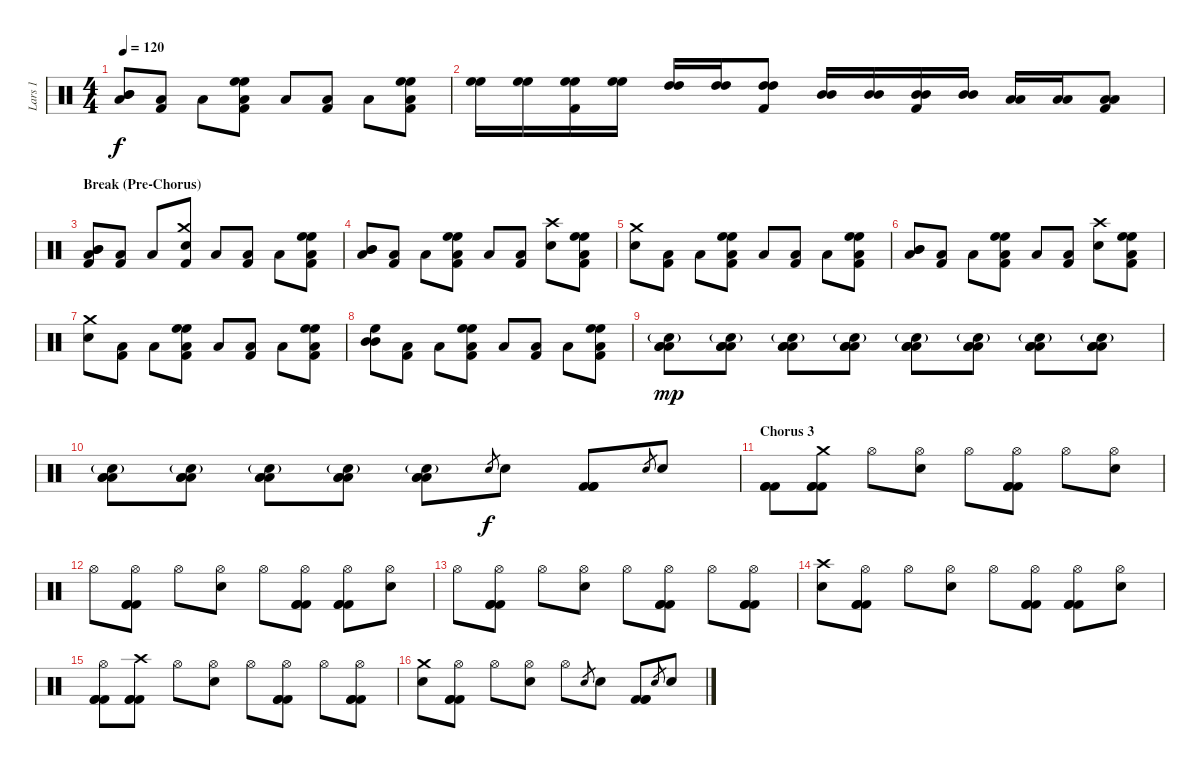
\track ("Lars 1" "Lars 1") {instrument percussion}
\staff {score}
\articulation defaults
\ts (4 4)
\tempo 120
\clef neutral
\ks c
("Mid Tom (hit)" "Low Floor Tom (hit)" "Mid Tom (hit)").8{dy f} ("Low Floor Tom (hit)" "Kick (hit) 2").8 "Low Floor Tom (hit)".8 ("High Floor Tom (hit)" "Low Floor Tom (hit)" "High Floor Tom (hit)" "Kick (hit) 2").8 "Low Floor Tom (hit)".8 ("Low Floor Tom (hit)" "Kick (hit) 2").8 "Low Floor Tom (hit)".8 ("High Floor Tom (hit)" "Low Floor Tom (hit)" "High Floor Tom (hit)" "Kick (hit) 2").8 |
("High Floor Tom (hit)" "High Floor Tom (hit)").16 ("High Floor Tom (hit)" "High Floor Tom (hit)").16 ("High Floor Tom (hit)" "High Floor Tom (hit)" "Kick (hit) 2").16 ("High Floor Tom (hit)" "High Floor Tom (hit)").16 ("High Tom (hit)" "High Tom (hit)").16 ("High Tom (hit)" "High Tom (hit)").16 ("High Tom (hit)" "High Tom (hit)" "Kick (hit) 2").8 ("Mid Tom (hit)" "Mid Tom (hit)").16 ("Mid Tom (hit)" "Mid Tom (hit)").16 ("Mid Tom (hit)" "Mid Tom (hit)" "Kick (hit) 2").16 ("Mid Tom (hit)" "Mid Tom (hit)").16 ("Low Tom (hit)" "Low Tom (hit)").16 ("Low Tom (hit)" "Low Tom (hit)").16 ("Low Floor Tom (hit)" "Low Floor Tom (hit)" "Kick (hit) 2").8 |
\section ("" "Break (Pre-Chorus)")
("Mid Tom (hit)" "Low Floor Tom (hit)" "Mid Tom (hit)" "Kick (hit) 2").8 ("Low Floor Tom (hit)" "Kick (hit) 2").8 "Low Floor Tom (hit)".8 ("Crash medium (hit)" "Electric Snare (hit)" "Kick (hit) 2").8 "Low Floor Tom (hit)".8 ("Low Floor Tom (hit)" "Kick (hit) 2").8 "Low Floor Tom (hit)".8 ("High Floor Tom (hit)" "Low Floor Tom (hit)" "High Floor Tom (hit)" "Kick (hit) 2").8 |
("Mid Tom (hit)" "Low Floor Tom (hit)" "Mid Tom (hit)").8 ("Low Floor Tom (hit)" "Kick (hit) 2").8 "Low Floor Tom (hit)".8 ("High Floor Tom (hit)" "Low Floor Tom (hit)" "High Floor Tom (hit)" "Kick (hit) 2").8 "Low Floor Tom (hit)".8 ("Low Floor Tom (hit)" "Kick (hit) 2").8 ("Crash high (hit)" "Electric Snare (hit)").8 ("High Floor Tom (hit)" "Low Floor Tom (hit)" "High Floor Tom (hit)" "Kick (hit) 2").8 |
("Crash medium (hit)" "Electric Snare (hit)").8 ("Low Floor Tom (hit)" "Kick (hit) 2").8 "Low Floor Tom (hit)".8 ("High Floor Tom (hit)" "Low Floor Tom (hit)" "High Floor Tom (hit)" "Kick (hit) 2").8 "Low Floor Tom (hit)".8 ("Low Floor Tom (hit)" "Kick (hit) 2").8 "Low Floor Tom (hit)".8 ("High Floor Tom (hit)" "Low Floor Tom (hit)" "High Floor Tom (hit)" "Kick (hit) 2").8 |
("Mid Tom (hit)" "Low Floor Tom (hit)" "Mid Tom (hit)").8 ("Low Floor Tom (hit)" "Kick (hit) 2").8 "Low Floor Tom (hit)".8 ("High Floor Tom (hit)" "Low Floor Tom (hit)" "High Floor Tom (hit)" "Kick (hit) 2").8 "Low Floor Tom (hit)".8 ("Low Floor Tom (hit)" "Kick (hit) 2").8 ("Crash high (hit)" "Electric Snare (hit)").8 ("High Floor Tom (hit)" "Low Floor Tom (hit)" "High Floor Tom (hit)" "Kick (hit) 2").8 |
("Crash medium (hit)" "Electric Snare (hit)").8 ("Low Floor Tom (hit)" "Kick (hit) 2").8 "Low Floor Tom (hit)".8 ("High Floor Tom (hit)" "Low Floor Tom (hit)" "High Floor Tom (hit)" "Kick (hit) 2").8 "Low Floor Tom (hit)".8 ("Low Floor Tom (hit)" "Kick (hit) 2").8 "Low Floor Tom (hit)".8 ("High Floor Tom (hit)" "Low Floor Tom (hit)" "High Floor Tom (hit)" "Kick (hit) 2").8 |
("Mid Tom (hit)" "High Floor Tom (hit)" "Mid Tom (hit)").8 ("Low Floor Tom (hit)" "Kick (hit) 2").8 "Low Floor Tom (hit)".8 ("High Floor Tom (hit)" "Low Floor Tom (hit)" "High Floor Tom (hit)" "Kick (hit) 2").8 "Low Floor Tom (hit)".8 ("Low Floor Tom (hit)" "Kick (hit) 2").8 "Low Floor Tom (hit)".8 ("High Floor Tom (hit)" "Low Floor Tom (hit)" "High Floor Tom (hit)" "Kick (hit) 2").8 |
("Low Floor Tom (hit)" "Low Floor Tom (hit)" "Low Floor Tom (hit)" "Electric Snare (hit)"{g}).8{dy mp volume 8} ("Low Floor Tom (hit)" "Low Floor Tom (hit)" "Low Floor Tom (hit)" "Electric Snare (hit)"{g}).8{volume 16} ("Low Floor Tom (hit)" "Low Floor Tom (hit)" "Low Floor Tom (hit)" "Electric Snare (hit)"{g}).8 ("Low Floor Tom (hit)" "Low Floor Tom (hit)" "Low Floor Tom (hit)" "Electric Snare (hit)"{g}).8 ("Low Floor Tom (hit)" "Low Floor Tom (hit)" "Low Floor Tom (hit)" "Electric Snare (hit)"{g}).8 ("Low Floor Tom (hit)" "Low Floor Tom (hit)" "Low Floor Tom (hit)" "Electric Snare (hit)"{g}).8 ("Low Floor Tom (hit)" "Low Floor Tom (hit)" "Low Floor Tom (hit)" "Electric Snare (hit)"{g}).8 ("Low Floor Tom (hit)" "Low Floor Tom (hit)" "Low Floor Tom (hit)" "Electric Snare (hit)"{g}).8 |
("Low Floor Tom (hit)" "Low Floor Tom (hit)" "Low Floor Tom (hit)" "Electric Snare (hit)"{g}).8 ("Low Floor Tom (hit)" "Low Floor Tom (hit)" "Low Floor Tom (hit)" "Electric Snare (hit)"{g}).8 ("Low Floor Tom (hit)" "Low Floor Tom (hit)" "Low Floor Tom (hit)" "Electric Snare (hit)"{g}).8 ("Low Floor Tom (hit)" "Low Floor Tom (hit)" "Low Floor Tom (hit)" "Electric Snare (hit)"{g}).8 ("Low Floor Tom (hit)" "Low Floor Tom (hit)" "Low Floor Tom (hit)" "Electric Snare (hit)"{g}).8 "Electric Snare (hit)".8{gr dy f} "Electric Snare (hit)".8 ("Kick (hit) 2" "Kick (hit) 2" "Kick (hit) 2").8 "Electric Snare (hit)".8{gr} "Electric Snare (hit)".8 |
\section ("" "Chorus 3")
("Kick (hit) 2" "Kick (hit) 2" "Kick (hit) 2").8 ("Crash medium (hit)" "Kick (hit) 2" "Kick (hit) 2" "Kick (hit) 2").8 "Hi-Hat (open)".8 ("Hi-Hat (open)" "Electric Snare (hit)").8 "Hi-Hat (open)".8 ("Hi-Hat (open)" "Kick (hit) 2" "Kick (hit) 2" "Kick (hit) 2").8 "Hi-Hat (open)".8 ("Hi-Hat (open)" "Electric Snare (hit)").8 |
"Hi-Hat (open)".8 ("Hi-Hat (open)" "Kick (hit) 2" "Kick (hit) 2" "Kick (hit) 2").8 "Hi-Hat (open)".8 ("Hi-Hat (open)" "Electric Snare (hit)").8 "Hi-Hat (open)".8 ("Hi-Hat (open)" "Kick (hit) 2" "Kick (hit) 2" "Kick (hit) 2").8 ("Hi-Hat (open)" "Kick (hit) 2" "Kick (hit) 2" "Kick (hit) 2").8 ("Hi-Hat (open)" "Electric Snare (hit)").8 |
"Hi-Hat (open)".8 ("Hi-Hat (open)" "Kick (hit) 2" "Kick (hit) 2" "Kick (hit) 2").8 "Hi-Hat (open)".8 ("Hi-Hat (open)" "Electric Snare (hit)").8 "Hi-Hat (open)".8 ("Hi-Hat (open)" "Kick (hit) 2" "Kick (hit) 2" "Kick (hit) 2").8 "Hi-Hat (open)".8 ("Hi-Hat (open)" "Kick (hit) 2" "Kick (hit) 2" "Kick (hit) 2").8 |
("Crash high (hit)" "Electric Snare (hit)").8 ("Hi-Hat (open)" "Kick (hit) 2" "Kick (hit) 2" "Kick (hit) 2").8 "Hi-Hat (open)".8 ("Hi-Hat (open)" "Electric Snare (hit)").8 "Hi-Hat (open)".8 ("Hi-Hat (open)" "Kick (hit) 2" "Kick (hit) 2" "Kick (hit) 2").8 ("Hi-Hat (open)" "Kick (hit) 2" "Kick (hit) 2" "Kick (hit) 2").8 ("Hi-Hat (open)" "Electric Snare (hit)").8 |
("Hi-Hat (open)" "Kick (hit) 2" "Kick (hit) 2" "Kick (hit) 2").8 ("Crash high (hit)" "Kick (hit) 2" "Kick (hit) 2" "Kick (hit) 2").8 "Hi-Hat (open)".8 ("Hi-Hat (open)" "Electric Snare (hit)").8 "Hi-Hat (open)".8 ("Hi-Hat (open)" "Kick (hit) 2" "Kick (hit) 2" "Kick (hit) 2").8 "Hi-Hat (open)".8 ("Hi-Hat (open)" "Kick (hit) 2" "Kick (hit) 2" "Kick (hit) 2").8 |
("Crash medium (hit)" "Electric Snare (hit)").8 ("Hi-Hat (open)" "Kick (hit) 2" "Kick (hit) 2" "Kick (hit) 2").8 "Hi-Hat (open)".8 ("Hi-Hat (open)" "Electric Snare (hit)").8 "Hi-Hat (open)".8 "Electric Snare (hit)".8{gr} "Electric Snare (hit)".8 ("Kick (hit) 2" "Kick (hit) 2" "Kick (hit) 2").8 "Electric Snare (hit)".8{gr} "Electric Snare (hit)".8
